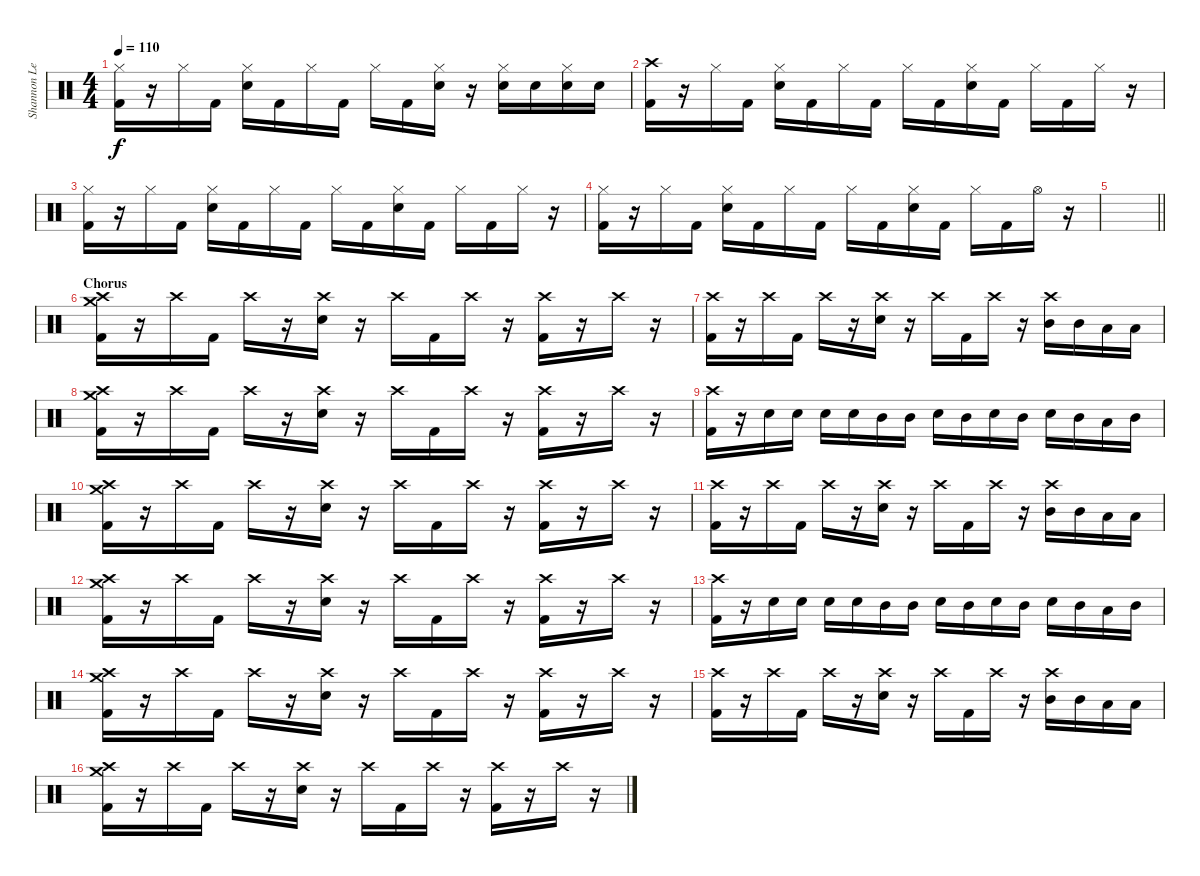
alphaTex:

\track ("Shannon Leto [Drums]" "Shannon Le") {instrument percussion}
\staff {score}
\articulation defaults
\ts (4 4)
\tempo 110
\clef neutral
\ks c
("Hi-Hat (closed)" "Kick (hit) 2").16{dy f} r.16 "Hi-Hat (closed)".16 "Kick (hit) 2".16 ("Hi-Hat (closed)" "Electric Snare (hit)").16 "Kick (hit) 2".16 "Hi-Hat (closed)".16 "Kick (hit) 2".16 "Hi-Hat (closed)".16 "Kick (hit) 2".16 ("Hi-Hat (closed)" "Electric Snare (hit)").16 r.16 ("Hi-Hat (closed)" "Electric Snare (hit)").16 "Electric Snare (hit)".16 ("Hi-Hat (closed)" "Electric Snare (hit)").16 "Electric Snare (hit)".16 |
("Crash high (hit)" "Kick (hit) 2").16 r.16 "Hi-Hat (closed)".16 "Kick (hit) 2".16 ("Hi-Hat (closed)" "Electric Snare (hit)").16 "Kick (hit) 2".16 "Hi-Hat (closed)".16 "Kick (hit) 2".16 "Hi-Hat (closed)".16 "Kick (hit) 2".16 ("Hi-Hat (closed)" "Electric Snare (hit)").16 "Kick (hit) 2".16 "Hi-Hat (closed)".16 "Kick (hit) 2".16 "Hi-Hat (closed)".16 r.16 |
("Hi-Hat (closed)" "Kick (hit) 2").16 r.16 "Hi-Hat (closed)".16 "Kick (hit) 2".16 ("Hi-Hat (closed)" "Electric Snare (hit)").16 "Kick (hit) 2".16 "Hi-Hat (closed)".16 "Kick (hit) 2".16 "Hi-Hat (closed)".16 "Kick (hit) 2".16 ("Hi-Hat (closed)" "Electric Snare (hit)").16 "Kick (hit) 2".16 "Hi-Hat (closed)".16 "Kick (hit) 2".16 "Hi-Hat (closed)".16 r.16 |
("Hi-Hat (closed)" "Kick (hit) 2").16 r.16 "Hi-Hat (closed)".16 "Kick (hit) 2".16 ("Hi-Hat (closed)" "Electric Snare (hit)").16 "Kick (hit) 2".16 "Hi-Hat (closed)".16 "Kick (hit) 2".16 "Hi-Hat (closed)".16 "Kick (hit) 2".16 ("Hi-Hat (closed)" "Electric Snare (hit)").16 "Kick (hit) 2".16 "Hi-Hat (closed)".16 "Kick (hit) 2".16 "Hi-Hat (open)".16 r.16 |
\barLineRight lightlight
|
\section ("" "Chorus")
("Crash high (hit)" "Crash medium (hit)" "Kick (hit) 2").16 r.16 "Crash high (hit)".16 "Kick (hit) 2".16 "Crash high (hit)".16 r.16 ("Crash high (hit)" "Electric Snare (hit)").16 r.16 "Crash high (hit)".16 "Kick (hit) 2".16 "Crash high (hit)".16 r.16 ("Crash high (hit)" "Kick (hit) 2").16 r.16 "Crash high (hit)".16 r.16 |
("Crash high (hit)" "Kick (hit) 2").16 r.16 "Crash high (hit)".16 "Kick (hit) 2".16 "Crash high (hit)".16 r.16 ("Crash high (hit)" "Electric Snare (hit)").16 r.16 "Crash high (hit)".16 "Kick (hit) 2".16 "Crash high (hit)".16 r.16 ("Crash high (hit)" "Mid Tom (hit)").16 "Mid Tom (hit)".16 "Low Tom (hit)".16 "Low Tom (hit)".16 |
("Crash high (hit)" "Crash medium (hit)" "Kick (hit) 2").16 r.16 "Crash high (hit)".16 "Kick (hit) 2".16 "Crash high (hit)".16 r.16 ("Crash high (hit)" "Electric Snare (hit)").16 r.16 "Crash high (hit)".16 "Kick (hit) 2".16 "Crash high (hit)".16 r.16 ("Crash high (hit)" "Kick (hit) 2").16 r.16 "Crash high (hit)".16 r.16 |
("Crash high (hit)" "Kick (hit) 2").16 r.16 "Electric Snare (hit)".16 "Electric Snare (hit)".16 "Electric Snare (hit)".16 "Electric Snare (hit)".16 "Mid Tom (hit)".16 "Mid Tom (hit)".16 "Electric Snare (hit)".16 "Mid Tom (hit)".16 "Electric Snare (hit)".16 "Mid Tom (hit)".16 "Electric Snare (hit)".16 "Mid Tom (hit)".16 "Low Tom (hit)".16 "Mid Tom (hit)".16 |
("Crash high (hit)" "Crash medium (hit)" "Kick (hit) 2").16 r.16 "Crash high (hit)".16 "Kick (hit) 2".16 "Crash high (hit)".16 r.16 ("Crash high (hit)" "Electric Snare (hit)").16 r.16 "Crash high (hit)".16 "Kick (hit) 2".16 "Crash high (hit)".16 r.16 ("Crash high (hit)" "Kick (hit) 2").16 r.16 "Crash high (hit)".16 r.16 |
("Crash high (hit)" "Kick (hit) 2").16 r.16 "Crash high (hit)".16 "Kick (hit) 2".16 "Crash high (hit)".16 r.16 ("Crash high (hit)" "Electric Snare (hit)").16 r.16 "Crash high (hit)".16 "Kick (hit) 2".16 "Crash high (hit)".16 r.16 ("Crash high (hit)" "Mid Tom (hit)").16 "Mid Tom (hit)".16 "Low Tom (hit)".16 "Low Tom (hit)".16 |
("Crash high (hit)" "Crash medium (hit)" "Kick (hit) 2").16 r.16 "Crash high (hit)".16 "Kick (hit) 2".16 "Crash high (hit)".16 r.16 ("Crash high (hit)" "Electric Snare (hit)").16 r.16 "Crash high (hit)".16 "Kick (hit) 2".16 "Crash high (hit)".16 r.16 ("Crash high (hit)" "Kick (hit) 2").16 r.16 "Crash high (hit)".16 r.16 |
("Crash high (hit)" "Kick (hit) 2").16 r.16 "Electric Snare (hit)".16 "Electric Snare (hit)".16 "Electric Snare (hit)".16 "Electric Snare (hit)".16 "Mid Tom (hit)".16 "Mid Tom (hit)".16 "Electric Snare (hit)".16 "Mid Tom (hit)".16 "Electric Snare (hit)".16 "Mid Tom (hit)".16 "Electric Snare (hit)".16 "Mid Tom (hit)".16 "Low Tom (hit)".16 "Mid Tom (hit)".16 |
("Crash high (hit)" "Crash medium (hit)" "Kick (hit) 2").16 r.16 "Crash high (hit)".16 "Kick (hit) 2".16 "Crash high (hit)".16 r.16 ("Crash high (hit)" "Electric Snare (hit)").16 r.16 "Crash high (hit)".16 "Kick (hit) 2".16 "Crash high (hit)".16 r.16 ("Crash high (hit)" "Kick (hit) 2").16 r.16 "Crash high (hit)".16 r.16 |
("Crash high (hit)" "Kick (hit) 2").16 r.16 "Crash high (hit)".16 "Kick (hit) 2".16 "Crash high (hit)".16 r.16 ("Crash high (hit)" "Electric Snare (hit)").16 r.16 "Crash high (hit)".16 "Kick (hit) 2".16 "Crash high (hit)".16 r.16 ("Crash high (hit)" "Mid Tom (hit)").16 "Mid Tom (hit)".16 "Low Tom (hit)".16 "Low Tom (hit)".16 |
("Crash high (hit)" "Crash medium (hit)" "Kick (hit) 2").16 r.16 "Crash high (hit)".16 "Kick (hit) 2".16 "Crash high (hit)".16 r.16 ("Crash high (hit)" "Electric Snare (hit)").16 r.16 "Crash high (hit)".16 "Kick (hit) 2".16 "Crash high (hit)".16 r.16 ("Crash high (hit)" "Kick (hit) 2").16 r.16 "Crash high (hit)".16 r.16
